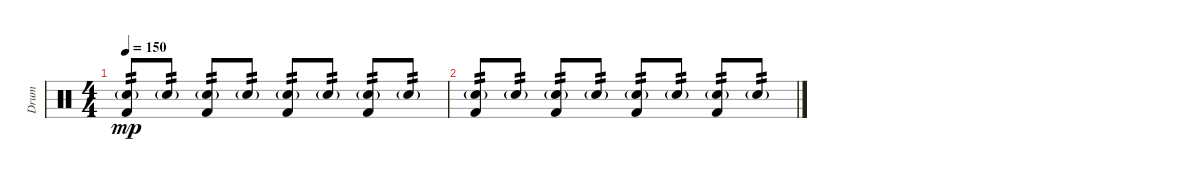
\track ("Drum" "Drum") {instrument percussion}
\staff {score}
\articulation defaults
\ts (4 4)
\tempo 150
\clef neutral
\ks c
("Kick (hit) 2" "Snare (hit) 2"{g}).8{tp 2 dy mp} "Snare (hit) 2"{g}.8{tp 2} ("Kick (hit) 2" "Snare (hit) 2"{g}).8{tp 2} "Snare (hit) 2"{g}.8{tp 2} ("Kick (hit) 2" "Snare (hit) 2"{g}).8{tp 2} "Snare (hit) 2"{g}.8{tp 2} ("Kick (hit) 2" "Snare (hit) 2"{g}).8{tp 2} "Snare (hit) 2"{g}.8{tp 2} |
("Kick (hit) 2" "Snare (hit) 2"{g}).8{tp 2} "Snare (hit) 2"{g}.8{tp 2} ("Kick (hit) 2" "Snare (hit) 2"{g}).8{tp 2} "Snare (hit) 2"{g}.8{tp 2} ("Kick (hit) 2" "Snare (hit) 2"{g}).8{tp 2} "Snare (hit) 2"{g}.8{tp 2} ("Kick (hit) 2" "Snare (hit) 2"{g}).8{tp 2} "Snare (hit) 2"{g}.8{tp 2}
